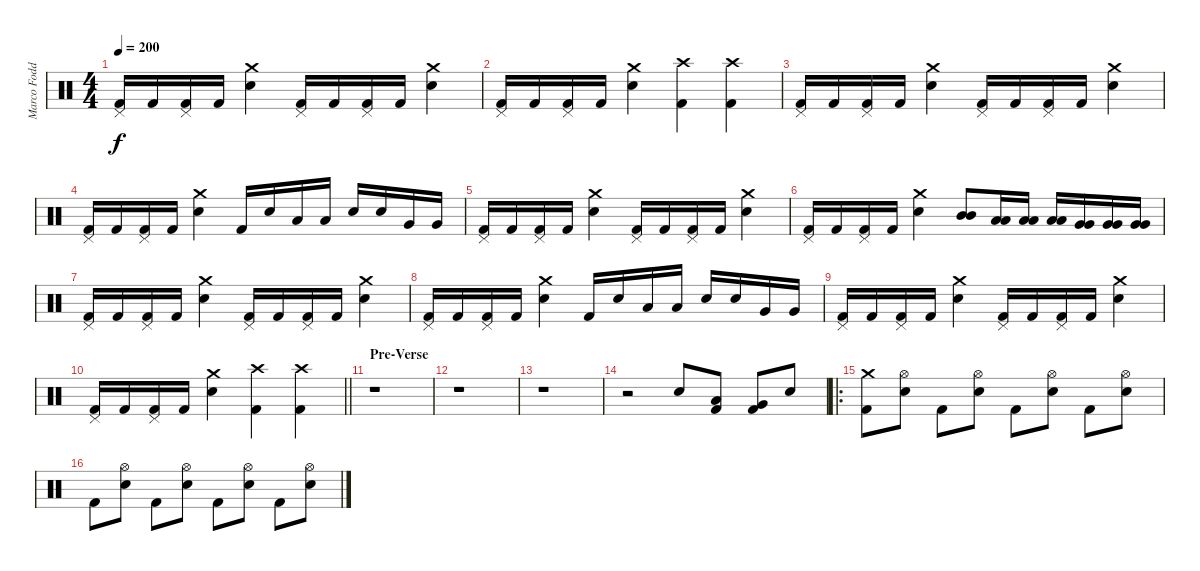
\track ("Marco Foddis " "Marco Fodd") {instrument percussion}
\staff {score}
\articulation defaults
\ts (4 4)
\tempo 200
\clef neutral
\ks c
("Pedal Hi-Hat (hit)" "Kick (hit) 2").16{dy f} "Kick (hit) 2".16 ("Pedal Hi-Hat (hit)" "Kick (hit) 2").16 "Kick (hit) 2".16 ("Crash medium (hit)" "Electric Snare (hit)").4 ("Pedal Hi-Hat (hit)" "Kick (hit) 2").16 "Kick (hit) 2".16 ("Pedal Hi-Hat (hit)" "Kick (hit) 2").16 "Kick (hit) 2".16 ("Crash medium (hit)" "Electric Snare (hit)").4 |
("Pedal Hi-Hat (hit)" "Kick (hit) 2").16 "Kick (hit) 2".16 ("Pedal Hi-Hat (hit)" "Kick (hit) 2").16 "Kick (hit) 2".16 ("Crash medium (hit)" "Electric Snare (hit)").4 ("Crash high (hit)" "Kick (hit) 2").4 ("Crash high (hit)" "Kick (hit) 2").4 |
("Pedal Hi-Hat (hit)" "Kick (hit) 2").16 "Kick (hit) 2".16 ("Pedal Hi-Hat (hit)" "Kick (hit) 2").16 "Kick (hit) 2".16 ("Crash medium (hit)" "Electric Snare (hit)").4 ("Pedal Hi-Hat (hit)" "Kick (hit) 2").16 "Kick (hit) 2".16 ("Pedal Hi-Hat (hit)" "Kick (hit) 2").16 "Kick (hit) 2".16 ("Crash medium (hit)" "Electric Snare (hit)").4 |
("Pedal Hi-Hat (hit)" "Kick (hit) 2").16 "Kick (hit) 2".16 ("Pedal Hi-Hat (hit)" "Kick (hit) 2").16 "Kick (hit) 2".16 ("Crash medium (hit)" "Electric Snare (hit)").4 "Kick (hit) 2".16 "Electric Snare (hit)".16 "Low Tom (hit)".16 "Low Tom (hit)".16 "Electric Snare (hit)".16 "Electric Snare (hit)".16 "Very Low Tom (hit)".16 "Very Low Tom (hit)".16 |
("Pedal Hi-Hat (hit)" "Kick (hit) 2").16 "Kick (hit) 2".16 ("Pedal Hi-Hat (hit)" "Kick (hit) 2").16 "Kick (hit) 2".16 ("Crash medium (hit)" "Electric Snare (hit)").4 ("Pedal Hi-Hat (hit)" "Kick (hit) 2").16 "Kick (hit) 2".16 ("Pedal Hi-Hat (hit)" "Kick (hit) 2").16 "Kick (hit) 2".16 ("Crash medium (hit)" "Electric Snare (hit)").4 |
("Pedal Hi-Hat (hit)" "Kick (hit) 2").16 "Kick (hit) 2".16 ("Pedal Hi-Hat (hit)" "Kick (hit) 2").16 "Kick (hit) 2".16 ("Crash medium (hit)" "Electric Snare (hit)").4 ("Mid Tom (hit)" "Mid Tom (hit)").8 ("Low Tom (hit)" "Low Tom (hit)").16 ("Low Tom (hit)" "Low Tom (hit)").16 ("Low Tom (hit)" "Low Tom (hit)").16 ("Very Low Tom (hit)" "Very Low Tom (hit)").16 ("Very Low Tom (hit)" "Very Low Tom (hit)").16 ("Very Low Tom (hit)" "Very Low Tom (hit)").16 |
("Pedal Hi-Hat (hit)" "Kick (hit) 2").16 "Kick (hit) 2".16 ("Pedal Hi-Hat (hit)" "Kick (hit) 2").16 "Kick (hit) 2".16 ("Crash medium (hit)" "Electric Snare (hit)").4 ("Pedal Hi-Hat (hit)" "Kick (hit) 2").16 "Kick (hit) 2".16 ("Pedal Hi-Hat (hit)" "Kick (hit) 2").16 "Kick (hit) 2".16 ("Crash medium (hit)" "Electric Snare (hit)").4 |
("Pedal Hi-Hat (hit)" "Kick (hit) 2").16 "Kick (hit) 2".16 ("Pedal Hi-Hat (hit)" "Kick (hit) 2").16 "Kick (hit) 2".16 ("Crash medium (hit)" "Electric Snare (hit)").4 "Kick (hit) 2".16 "Electric Snare (hit)".16 "Low Tom (hit)".16 "Low Tom (hit)".16 "Electric Snare (hit)".16 "Electric Snare (hit)".16 "Very Low Tom (hit)".16 "Very Low Tom (hit)".16 |
("Pedal Hi-Hat (hit)" "Kick (hit) 2").16 "Kick (hit) 2".16 ("Pedal Hi-Hat (hit)" "Kick (hit) 2").16 "Kick (hit) 2".16 ("Crash medium (hit)" "Electric Snare (hit)").4 ("Pedal Hi-Hat (hit)" "Kick (hit) 2").16 "Kick (hit) 2".16 ("Pedal Hi-Hat (hit)" "Kick (hit) 2").16 "Kick (hit) 2".16 ("Crash medium (hit)" "Electric Snare (hit)").4 |
\barLineRight lightlight
("Pedal Hi-Hat (hit)" "Kick (hit) 2").16 "Kick (hit) 2".16 ("Pedal Hi-Hat (hit)" "Kick (hit) 2").16 "Kick (hit) 2".16 ("Crash medium (hit)" "Electric Snare (hit)").4 ("Crash high (hit)" "Kick (hit) 2").4 ("Crash high (hit)" "Kick (hit) 2").4 |
\section ("" "Pre-Verse")
r.1 |
r.1 |
r.1 |
r.2 "Electric Snare (hit)".8 ("Low Tom (hit)" "Kick (hit) 2").8 ("Very Low Tom (hit)" "Kick (hit) 2").8 "Electric Snare (hit)".8 |
\ro
("Crash medium (hit)" "Kick (hit) 2").8 ("Hi-Hat (open)" "Electric Snare (hit)").8 "Kick (hit) 2".8 ("Hi-Hat (open)" "Electric Snare (hit)").8 "Kick (hit) 2".8 ("Hi-Hat (open)" "Electric Snare (hit)").8 "Kick (hit) 2".8 ("Hi-Hat (open)" "Electric Snare (hit)").8 |
"Kick (hit) 2".8 ("Hi-Hat (open)" "Electric Snare (hit)").8 "Kick (hit) 2".8 ("Hi-Hat (open)" "Electric Snare (hit)").8 "Kick (hit) 2".8 ("Hi-Hat (open)" "Electric Snare (hit)").8 "Kick (hit) 2".8 ("Hi-Hat (open)" "Electric Snare (hit)").8
